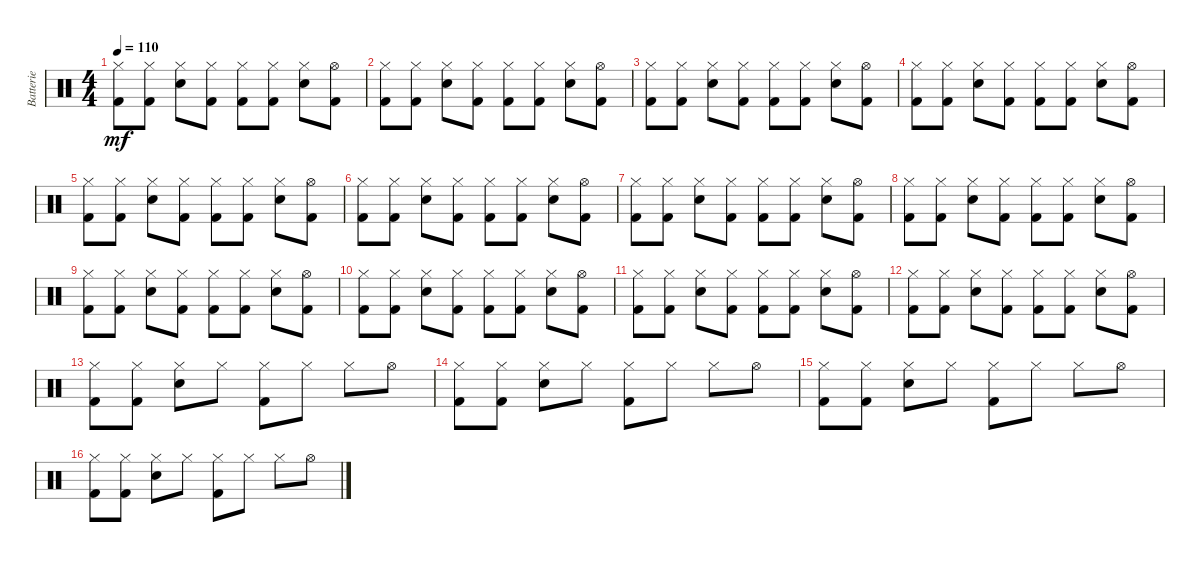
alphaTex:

\track ("Batterie" "Batterie") {instrument percussion}
\staff {score}
\articulation defaults
\ts (4 4)
\tempo 110
\clef neutral
\ks c
("Hi-Hat (closed)" "Kick (hit) 2").8{dy mf} ("Hi-Hat (closed)" "Kick (hit) 2").8 ("Hi-Hat (closed)" "Electric Snare (hit)").8 ("Hi-Hat (closed)" "Kick (hit) 2").8 ("Hi-Hat (closed)" "Kick (hit) 2").8 ("Hi-Hat (closed)" "Kick (hit) 2").8 ("Hi-Hat (closed)" "Electric Snare (hit)").8 ("Hi-Hat (open)" "Kick (hit) 2").8 |
("Hi-Hat (closed)" "Kick (hit) 2").8 ("Hi-Hat (closed)" "Kick (hit) 2").8 ("Hi-Hat (closed)" "Electric Snare (hit)").8 ("Hi-Hat (closed)" "Kick (hit) 2").8 ("Hi-Hat (closed)" "Kick (hit) 2").8 ("Hi-Hat (closed)" "Kick (hit) 2").8 ("Hi-Hat (closed)" "Electric Snare (hit)").8 ("Hi-Hat (open)" "Kick (hit) 2").8 |
("Hi-Hat (closed)" "Kick (hit) 2").8 ("Hi-Hat (closed)" "Kick (hit) 2").8 ("Hi-Hat (closed)" "Electric Snare (hit)").8 ("Hi-Hat (closed)" "Kick (hit) 2").8 ("Hi-Hat (closed)" "Kick (hit) 2").8 ("Hi-Hat (closed)" "Kick (hit) 2").8 ("Hi-Hat (closed)" "Electric Snare (hit)").8 ("Hi-Hat (open)" "Kick (hit) 2").8 |
("Hi-Hat (closed)" "Kick (hit) 2").8 ("Hi-Hat (closed)" "Kick (hit) 2").8 ("Hi-Hat (closed)" "Electric Snare (hit)").8 ("Hi-Hat (closed)" "Kick (hit) 2").8 ("Hi-Hat (closed)" "Kick (hit) 2").8 ("Hi-Hat (closed)" "Kick (hit) 2").8 ("Hi-Hat (closed)" "Electric Snare (hit)").8 ("Hi-Hat (open)" "Kick (hit) 2").8 |
("Hi-Hat (closed)" "Kick (hit) 2").8 ("Hi-Hat (closed)" "Kick (hit) 2").8 ("Hi-Hat (closed)" "Electric Snare (hit)").8 ("Hi-Hat (closed)" "Kick (hit) 2").8 ("Hi-Hat (closed)" "Kick (hit) 2").8 ("Hi-Hat (closed)" "Kick (hit) 2").8 ("Hi-Hat (closed)" "Electric Snare (hit)").8 ("Hi-Hat (open)" "Kick (hit) 2").8 |
("Hi-Hat (closed)" "Kick (hit) 2").8 ("Hi-Hat (closed)" "Kick (hit) 2").8 ("Hi-Hat (closed)" "Electric Snare (hit)").8 ("Hi-Hat (closed)" "Kick (hit) 2").8 ("Hi-Hat (closed)" "Kick (hit) 2").8 ("Hi-Hat (closed)" "Kick (hit) 2").8 ("Hi-Hat (closed)" "Electric Snare (hit)").8 ("Hi-Hat (open)" "Kick (hit) 2").8 |
("Hi-Hat (closed)" "Kick (hit) 2").8 ("Hi-Hat (closed)" "Kick (hit) 2").8 ("Hi-Hat (closed)" "Electric Snare (hit)").8 ("Hi-Hat (closed)" "Kick (hit) 2").8 ("Hi-Hat (closed)" "Kick (hit) 2").8 ("Hi-Hat (closed)" "Kick (hit) 2").8 ("Hi-Hat (closed)" "Electric Snare (hit)").8 ("Hi-Hat (open)" "Kick (hit) 2").8 |
("Hi-Hat (closed)" "Kick (hit) 2").8 ("Hi-Hat (closed)" "Kick (hit) 2").8 ("Hi-Hat (closed)" "Electric Snare (hit)").8 ("Hi-Hat (closed)" "Kick (hit) 2").8 ("Hi-Hat (closed)" "Kick (hit) 2").8 ("Hi-Hat (closed)" "Kick (hit) 2").8 ("Hi-Hat (closed)" "Electric Snare (hit)").8 ("Hi-Hat (open)" "Kick (hit) 2").8 |
("Hi-Hat (closed)" "Kick (hit) 2").8 ("Hi-Hat (closed)" "Kick (hit) 2").8 ("Hi-Hat (closed)" "Electric Snare (hit)").8 ("Hi-Hat (closed)" "Kick (hit) 2").8 ("Hi-Hat (closed)" "Kick (hit) 2").8 ("Hi-Hat (closed)" "Kick (hit) 2").8 ("Hi-Hat (closed)" "Electric Snare (hit)").8 ("Hi-Hat (open)" "Kick (hit) 2").8 |
("Hi-Hat (closed)" "Kick (hit) 2").8 ("Hi-Hat (closed)" "Kick (hit) 2").8 ("Hi-Hat (closed)" "Electric Snare (hit)").8 ("Hi-Hat (closed)" "Kick (hit) 2").8 ("Hi-Hat (closed)" "Kick (hit) 2").8 ("Hi-Hat (closed)" "Kick (hit) 2").8 ("Hi-Hat (closed)" "Electric Snare (hit)").8 ("Hi-Hat (open)" "Kick (hit) 2").8 |
("Hi-Hat (closed)" "Kick (hit) 2").8 ("Hi-Hat (closed)" "Kick (hit) 2").8 ("Hi-Hat (closed)" "Electric Snare (hit)").8 ("Hi-Hat (closed)" "Kick (hit) 2").8 ("Hi-Hat (closed)" "Kick (hit) 2").8 ("Hi-Hat (closed)" "Kick (hit) 2").8 ("Hi-Hat (closed)" "Electric Snare (hit)").8 ("Hi-Hat (open)" "Kick (hit) 2").8 |
("Hi-Hat (closed)" "Kick (hit) 2").8 ("Hi-Hat (closed)" "Kick (hit) 2").8 ("Hi-Hat (closed)" "Electric Snare (hit)").8 ("Hi-Hat (closed)" "Kick (hit) 2").8 ("Hi-Hat (closed)" "Kick (hit) 2").8 ("Hi-Hat (closed)" "Kick (hit) 2").8 ("Hi-Hat (closed)" "Electric Snare (hit)").8 ("Hi-Hat (open)" "Kick (hit) 2").8 |
("Hi-Hat (closed)" "Kick (hit) 2").8 ("Hi-Hat (closed)" "Kick (hit) 2").8 ("Hi-Hat (closed)" "Electric Snare (hit)").8 "Hi-Hat (closed)".8 ("Hi-Hat (closed)" "Kick (hit) 2").8 "Hi-Hat (closed)".8 "Hi-Hat (closed)".8 "Hi-Hat (open)".8 |
("Hi-Hat (closed)" "Kick (hit) 2").8 ("Hi-Hat (closed)" "Kick (hit) 2").8 ("Hi-Hat (closed)" "Electric Snare (hit)").8 "Hi-Hat (closed)".8 ("Hi-Hat (closed)" "Kick (hit) 2").8 "Hi-Hat (closed)".8 "Hi-Hat (closed)".8 "Hi-Hat (open)".8 |
("Hi-Hat (closed)" "Kick (hit) 2").8 ("Hi-Hat (closed)" "Kick (hit) 2").8 ("Hi-Hat (closed)" "Electric Snare (hit)").8 "Hi-Hat (closed)".8 ("Hi-Hat (closed)" "Kick (hit) 2").8 "Hi-Hat (closed)".8 "Hi-Hat (closed)".8 "Hi-Hat (open)".8 |
("Hi-Hat (closed)" "Kick (hit) 2").8 ("Hi-Hat (closed)" "Kick (hit) 2").8 ("Hi-Hat (closed)" "Electric Snare (hit)").8 "Hi-Hat (closed)".8 ("Hi-Hat (closed)" "Kick (hit) 2").8 "Hi-Hat (closed)".8 "Hi-Hat (closed)".8 "Hi-Hat (open)".8
